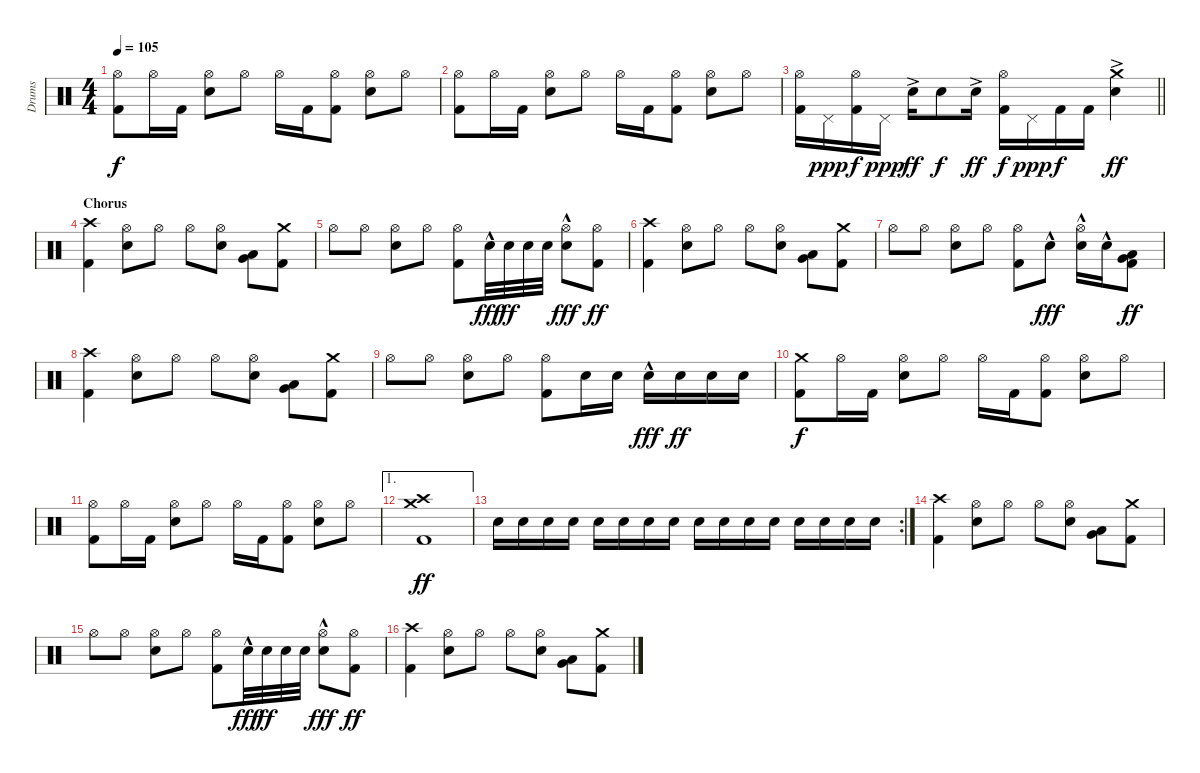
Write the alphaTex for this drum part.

\track ("Drums" "Drums") {instrument percussion}
\staff {score}
\articulation defaults
\ts (4 4)
\tempo 105
\clef neutral
\ks c
("Hi-Hat (open)" "Kick (hit) 2").8{dy f} "Hi-Hat (open)".16 "Kick (hit) 2".16 ("Hi-Hat (open)" "Electric Snare (hit)").8 "Hi-Hat (open)".8 "Hi-Hat (open)".16 "Kick (hit) 2".16 ("Hi-Hat (open)" "Kick (hit) 2").8 ("Hi-Hat (open)" "Electric Snare (hit)").8 "Hi-Hat (open)".8 |
("Hi-Hat (open)" "Kick (hit) 2").8 "Hi-Hat (open)".16 "Kick (hit) 2".16 ("Hi-Hat (open)" "Electric Snare (hit)").8 "Hi-Hat (open)".8 "Hi-Hat (open)".16 "Kick (hit) 2".16 ("Hi-Hat (open)" "Kick (hit) 2").8 ("Hi-Hat (open)" "Electric Snare (hit)").8 "Hi-Hat (open)".8 |
\barLineRight lightlight
("Hi-Hat (open)" "Kick (hit) 2").16 "Pedal Hi-Hat (hit)".16{dy ppp} ("Hi-Hat (open)" "Kick (hit) 2").16{dy f} "Pedal Hi-Hat (hit)".16{dy ppp} "Electric Snare (hit)"{ac}.16{dy ff} "Electric Snare (hit)".8{dy f} "Electric Snare (hit)"{ac}.16{dy ff} ("Hi-Hat (open)" "Kick (hit) 2").16{dy f} "Pedal Hi-Hat (hit)".16{dy ppp} "Kick (hit) 2".16{dy f} "Kick (hit) 2".16 ("Crash medium (hit)" "Electric Snare (hit)"{ac}).4{dy ff} |
\section ("" "Chorus")
("Crash high (hit)" "Kick (hit) 2").4 ("Hi-Hat (open)" "Electric Snare (hit)").8 "Hi-Hat (open)".8 "Hi-Hat (open)".8 ("Hi-Hat (open)" "Electric Snare (hit)").8 ("Very Low Tom (hit)" "Low Floor Tom (hit)").8 ("Crash medium (hit)" "Kick (hit) 2").8 |
"Hi-Hat (open)".8 "Hi-Hat (open)".8 ("Hi-Hat (open)" "Electric Snare (hit)").8 "Hi-Hat (open)".8 ("Hi-Hat (open)" "Kick (hit) 2").8 "Electric Snare (hit)"{hac}.32{dy fff} "Electric Snare (hit)".32{dy ff} "Electric Snare (hit)".32 "Electric Snare (hit)".32 ("Hi-Hat (open)" "Electric Snare (hit)"{hac}).8{dy fff} ("Hi-Hat (open)" "Kick (hit) 2").8{dy ff} |
("Crash high (hit)" "Kick (hit) 2").4 ("Hi-Hat (open)" "Electric Snare (hit)").8 "Hi-Hat (open)".8 "Hi-Hat (open)".8 ("Hi-Hat (open)" "Electric Snare (hit)").8 ("Very Low Tom (hit)" "Low Floor Tom (hit)").8 ("Crash medium (hit)" "Kick (hit) 2").8 |
"Hi-Hat (open)".8 "Hi-Hat (open)".8 ("Hi-Hat (open)" "Electric Snare (hit)").8 "Hi-Hat (open)".8 ("Hi-Hat (open)" "Kick (hit) 2").8 "Electric Snare (hit)"{hac}.8{dy fff} ("Hi-Hat (open)" "Electric Snare (hit)"{hac}).16 "Electric Snare (hit)"{hac}.16 ("Very Low Tom (hit)" "Low Floor Tom (hit)" "Kick (hit) 2").8{dy ff} |
("Crash high (hit)" "Kick (hit) 2").4 ("Hi-Hat (open)" "Electric Snare (hit)").8 "Hi-Hat (open)".8 "Hi-Hat (open)".8 ("Hi-Hat (open)" "Electric Snare (hit)").8 ("Very Low Tom (hit)" "Low Floor Tom (hit)").8 ("Crash medium (hit)" "Kick (hit) 2").8 |
"Hi-Hat (open)".8 "Hi-Hat (open)".8 ("Hi-Hat (open)" "Electric Snare (hit)").8 "Hi-Hat (open)".8 ("Hi-Hat (open)" "Kick (hit) 2").8 "Electric Snare (hit)".16 "Electric Snare (hit)".16 "Electric Snare (hit)"{hac}.16{dy fff} "Electric Snare (hit)".16{dy ff} "Electric Snare (hit)".16 "Electric Snare (hit)".16 |
("Crash medium (hit)" "Kick (hit) 2").8{dy f} "Hi-Hat (open)".16 "Kick (hit) 2".16 ("Hi-Hat (open)" "Electric Snare (hit)").8 "Hi-Hat (open)".8 "Hi-Hat (open)".16 "Kick (hit) 2".16 ("Hi-Hat (open)" "Kick (hit) 2").8 ("Hi-Hat (open)" "Electric Snare (hit)").8 "Hi-Hat (open)".8 |
("Hi-Hat (open)" "Kick (hit) 2").8 "Hi-Hat (open)".16 "Kick (hit) 2".16 ("Hi-Hat (open)" "Electric Snare (hit)").8 "Hi-Hat (open)".8 "Hi-Hat (open)".16 "Kick (hit) 2".16 ("Hi-Hat (open)" "Kick (hit) 2").8 ("Hi-Hat (open)" "Electric Snare (hit)").8 "Hi-Hat (open)".8 |
\ae 1
("Crash high (hit)" "Crash medium (hit)" "Kick (hit) 2").1{dy ff} |
\rc 2 "Electric Snare (hit)".16{volume 2} "Electric Snare (hit)".16{volume 16} "Electric Snare (hit)".16 "Electric Snare (hit)".16 "Electric Snare (hit)".16 "Electric Snare (hit)".16 "Electric Snare (hit)".16 "Electric Snare (hit)".16 "Electric Snare (hit)".16 "Electric Snare (hit)".16 "Electric Snare (hit)".16 "Electric Snare (hit)".16 "Electric Snare (hit)".16 "Electric Snare (hit)".16 "Electric Snare (hit)".16 "Electric Snare (hit)".16
|
("Crash high (hit)" "Kick (hit) 2").4 ("Hi-Hat (open)" "Electric Snare (hit)").8 "Hi-Hat (open)".8 "Hi-Hat (open)".8 ("Hi-Hat (open)" "Electric Snare (hit)").8 ("Very Low Tom (hit)" "Low Floor Tom (hit)").8 ("Crash medium (hit)" "Kick (hit) 2").8 |
"Hi-Hat (open)".8 "Hi-Hat (open)".8 ("Hi-Hat (open)" "Electric Snare (hit)").8 "Hi-Hat (open)".8 ("Hi-Hat (open)" "Kick (hit) 2").8 "Electric Snare (hit)"{hac}.32{dy fff} "Electric Snare (hit)".32{dy ff} "Electric Snare (hit)".32 "Electric Snare (hit)".32 ("Hi-Hat (open)" "Electric Snare (hit)"{hac}).8{dy fff} ("Hi-Hat (open)" "Kick (hit) 2").8{dy ff} |
("Crash high (hit)" "Kick (hit) 2").4 ("Hi-Hat (open)" "Electric Snare (hit)").8 "Hi-Hat (open)".8 "Hi-Hat (open)".8 ("Hi-Hat (open)" "Electric Snare (hit)").8 ("Very Low Tom (hit)" "Low Floor Tom (hit)").8 ("Crash medium (hit)" "Kick (hit) 2").8
